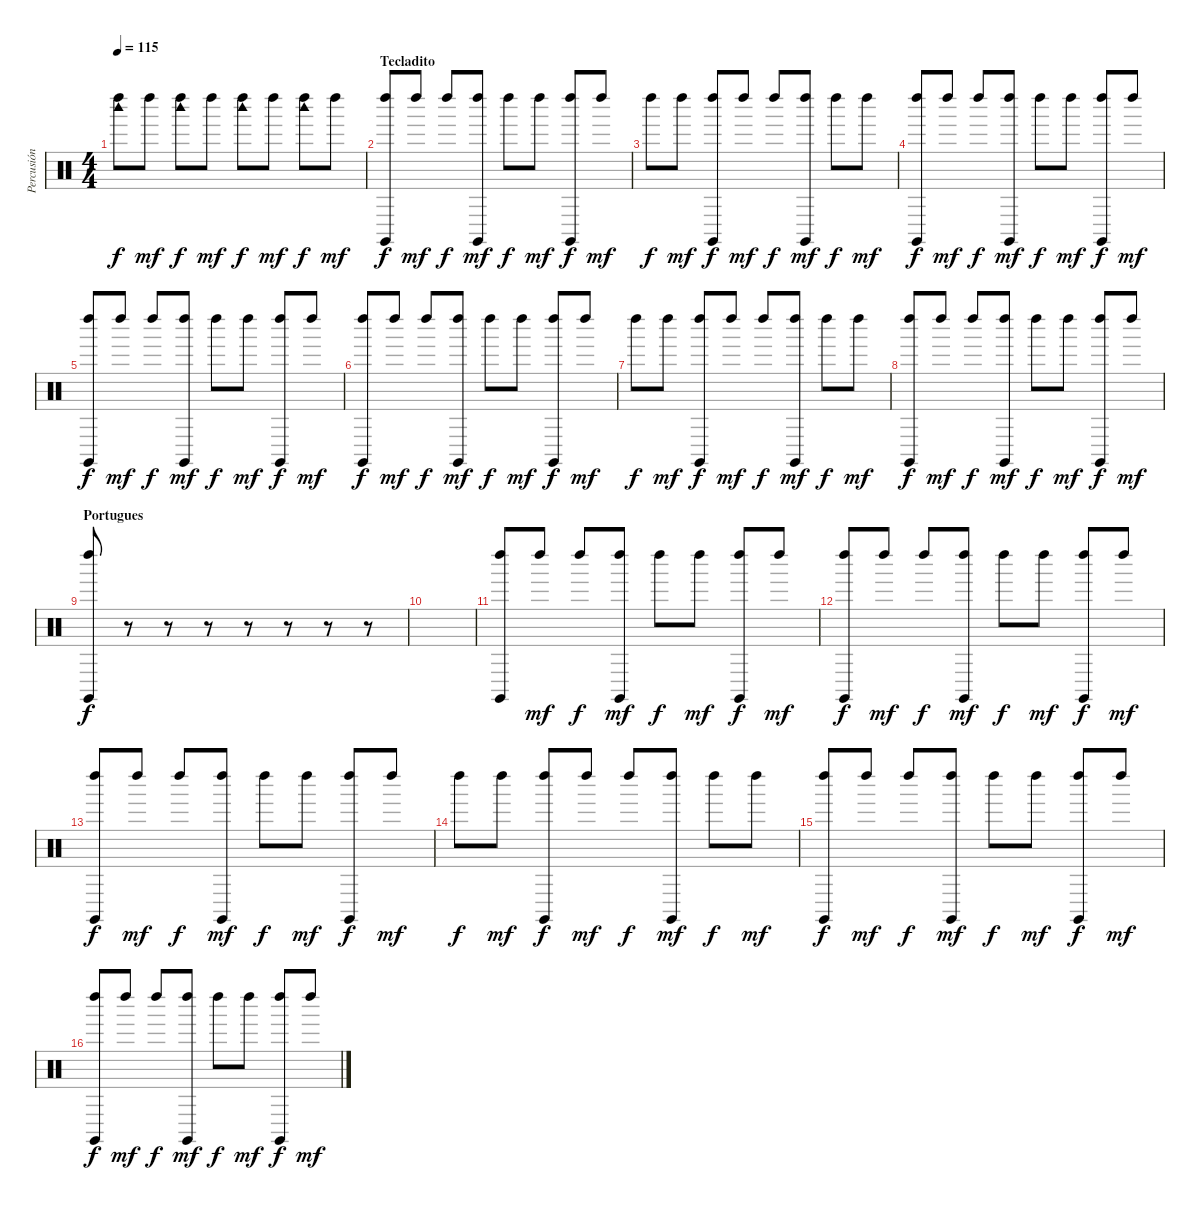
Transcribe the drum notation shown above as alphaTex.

\track ("Percusión" "Percusión") {instrument percussion}
\staff {score}
\articulation defaults
\ts (4 4)
\tempo 115
\clef neutral
\ks c
("Woodblock high (hit)" "Left Maraca (hit)").8{dy f} "Left Maraca (hit)".8{dy mf} ("Woodblock high (hit)" "Left Maraca (hit)").8{dy f} "Left Maraca (hit)".8{dy mf} ("Woodblock high (hit)" "Left Maraca (hit)").8{dy f} "Left Maraca (hit)".8{dy mf} ("Woodblock high (hit)" "Left Maraca (hit)").8{dy f} "Left Maraca (hit)".8{dy mf} |
\section ("" "Tecladito")
("Claves (hit)" "Left Maraca (hit)").8{dy f} "Left Maraca (hit)".8{dy mf} "Left Maraca (hit)".8{dy f} ("Claves (hit)" "Left Maraca (hit)").8{dy mf} "Left Maraca (hit)".8{dy f} "Left Maraca (hit)".8{dy mf} ("Claves (hit)" "Left Maraca (hit)").8{dy f} "Left Maraca (hit)".8{dy mf} |
"Left Maraca (hit)".8{dy f} "Left Maraca (hit)".8{dy mf} ("Claves (hit)" "Left Maraca (hit)").8{dy f} "Left Maraca (hit)".8{dy mf} "Left Maraca (hit)".8{dy f} ("Claves (hit)" "Left Maraca (hit)").8{dy mf} "Left Maraca (hit)".8{dy f} "Left Maraca (hit)".8{dy mf} |
("Claves (hit)" "Left Maraca (hit)").8{dy f} "Left Maraca (hit)".8{dy mf} "Left Maraca (hit)".8{dy f} ("Claves (hit)" "Left Maraca (hit)").8{dy mf} "Left Maraca (hit)".8{dy f} "Left Maraca (hit)".8{dy mf} ("Claves (hit)" "Left Maraca (hit)").8{dy f} "Left Maraca (hit)".8{dy mf} |
("Claves (hit)" "Left Maraca (hit)").8{dy f} "Left Maraca (hit)".8{dy mf} "Left Maraca (hit)".8{dy f} ("Claves (hit)" "Left Maraca (hit)").8{dy mf} "Left Maraca (hit)".8{dy f} "Left Maraca (hit)".8{dy mf} ("Claves (hit)" "Left Maraca (hit)").8{dy f} "Left Maraca (hit)".8{dy mf} |
("Claves (hit)" "Left Maraca (hit)").8{dy f} "Left Maraca (hit)".8{dy mf} "Left Maraca (hit)".8{dy f} ("Claves (hit)" "Left Maraca (hit)").8{dy mf} "Left Maraca (hit)".8{dy f} "Left Maraca (hit)".8{dy mf} ("Claves (hit)" "Left Maraca (hit)").8{dy f} "Left Maraca (hit)".8{dy mf} |
"Left Maraca (hit)".8{dy f} "Left Maraca (hit)".8{dy mf} ("Claves (hit)" "Left Maraca (hit)").8{dy f} "Left Maraca (hit)".8{dy mf} "Left Maraca (hit)".8{dy f} ("Claves (hit)" "Left Maraca (hit)").8{dy mf} "Left Maraca (hit)".8{dy f} "Left Maraca (hit)".8{dy mf} |
("Claves (hit)" "Left Maraca (hit)").8{dy f} "Left Maraca (hit)".8{dy mf} "Left Maraca (hit)".8{dy f} ("Claves (hit)" "Left Maraca (hit)").8{dy mf} "Left Maraca (hit)".8{dy f} "Left Maraca (hit)".8{dy mf} ("Claves (hit)" "Left Maraca (hit)").8{dy f} "Left Maraca (hit)".8{dy mf} |
\section ("" "Portugues")
("Claves (hit)" "Left Maraca (hit)").8{dy f} r.8 r.8 r.8 r.8 r.8 r.8 r.8 |
|
("Claves (hit)" "Left Maraca (hit)").8 "Left Maraca (hit)".8{dy mf} "Left Maraca (hit)".8{dy f} ("Claves (hit)" "Left Maraca (hit)").8{dy mf} "Left Maraca (hit)".8{dy f} "Left Maraca (hit)".8{dy mf} ("Claves (hit)" "Left Maraca (hit)").8{dy f} "Left Maraca (hit)".8{dy mf} |
("Claves (hit)" "Left Maraca (hit)").8{dy f} "Left Maraca (hit)".8{dy mf} "Left Maraca (hit)".8{dy f} ("Claves (hit)" "Left Maraca (hit)").8{dy mf} "Left Maraca (hit)".8{dy f} "Left Maraca (hit)".8{dy mf} ("Claves (hit)" "Left Maraca (hit)").8{dy f} "Left Maraca (hit)".8{dy mf} |
("Claves (hit)" "Left Maraca (hit)").8{dy f} "Left Maraca (hit)".8{dy mf} "Left Maraca (hit)".8{dy f} ("Claves (hit)" "Left Maraca (hit)").8{dy mf} "Left Maraca (hit)".8{dy f} "Left Maraca (hit)".8{dy mf} ("Claves (hit)" "Left Maraca (hit)").8{dy f} "Left Maraca (hit)".8{dy mf} |
"Left Maraca (hit)".8{dy f} "Left Maraca (hit)".8{dy mf} ("Claves (hit)" "Left Maraca (hit)").8{dy f} "Left Maraca (hit)".8{dy mf} "Left Maraca (hit)".8{dy f} ("Claves (hit)" "Left Maraca (hit)").8{dy mf} "Left Maraca (hit)".8{dy f} "Left Maraca (hit)".8{dy mf} |
("Claves (hit)" "Left Maraca (hit)").8{dy f} "Left Maraca (hit)".8{dy mf} "Left Maraca (hit)".8{dy f} ("Claves (hit)" "Left Maraca (hit)").8{dy mf} "Left Maraca (hit)".8{dy f} "Left Maraca (hit)".8{dy mf} ("Claves (hit)" "Left Maraca (hit)").8{dy f} "Left Maraca (hit)".8{dy mf} |
("Claves (hit)" "Left Maraca (hit)").8{dy f} "Left Maraca (hit)".8{dy mf} "Left Maraca (hit)".8{dy f} ("Claves (hit)" "Left Maraca (hit)").8{dy mf} "Left Maraca (hit)".8{dy f} "Left Maraca (hit)".8{dy mf} ("Claves (hit)" "Left Maraca (hit)").8{dy f} "Left Maraca (hit)".8{dy mf}
